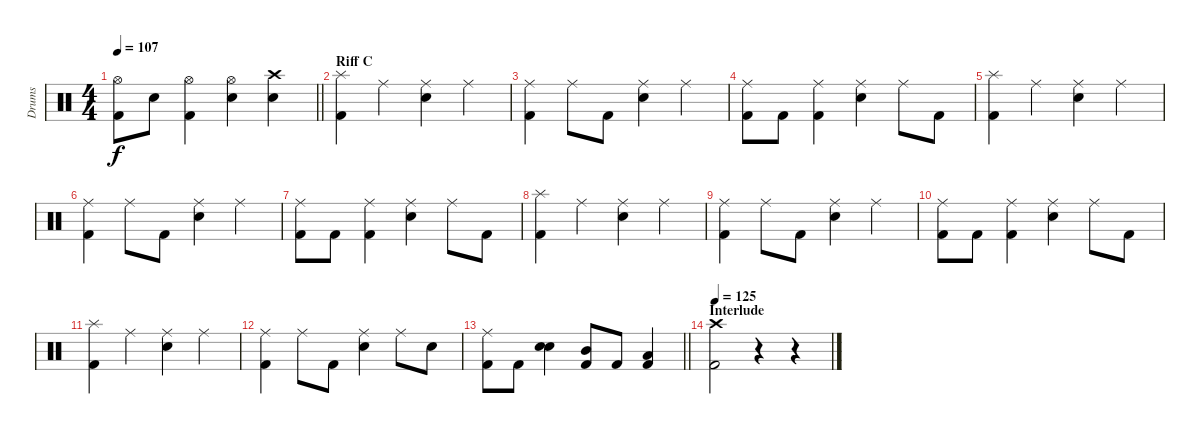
\track ("Drums" "Drums") {instrument percussion}
\staff {score}
\articulation defaults
\ts (4 4)
\tempo 107
\clef neutral
\barLineRight lightlight
\ks c
("Hi-Hat (open)" "Kick (hit) 2").8{dy f} "Electric Snare (hit)".8 ("Hi-Hat (open)" "Kick (hit) 2").4 ("Hi-Hat (open)" "Electric Snare (hit)").4 ("Crash high (hit)" "Electric Snare (hit)").4 |
\section ("" "Riff C")
("Splash (hit)" "Kick (hit) 2").4{volume 14} "Ride (middle)".4 ("Ride (middle)" "Electric Snare (hit)").4 "Ride (middle)".4 |
("Ride (middle)" "Kick (hit) 2").4 "Ride (middle)".8 "Kick (hit) 2".8 ("Ride (middle)" "Electric Snare (hit)").4 "Ride (middle)".4 |
("Ride (middle)" "Kick (hit) 2").8 "Kick (hit) 2".8 ("Ride (middle)" "Kick (hit) 2").4 ("Ride (middle)" "Electric Snare (hit)").4 "Ride (middle)".8 "Kick (hit) 2".8 |
("Splash (hit)" "Kick (hit) 2").4 "Ride (middle)".4 ("Ride (middle)" "Electric Snare (hit)").4 "Ride (middle)".4 |
("Ride (middle)" "Kick (hit) 2").4 "Ride (middle)".8 "Kick (hit) 2".8 ("Ride (middle)" "Electric Snare (hit)").4 "Ride (middle)".4 |
("Ride (middle)" "Kick (hit) 2").8 "Kick (hit) 2".8 ("Ride (middle)" "Kick (hit) 2").4 ("Ride (middle)" "Electric Snare (hit)").4 "Ride (middle)".8 "Kick (hit) 2".8 |
("Splash (hit)" "Kick (hit) 2").4 "Ride (middle)".4 ("Ride (middle)" "Electric Snare (hit)").4 "Ride (middle)".4 |
("Ride (middle)" "Kick (hit) 2").4 "Ride (middle)".8 "Kick (hit) 2".8 ("Ride (middle)" "Electric Snare (hit)").4 "Ride (middle)".4 |
("Ride (middle)" "Kick (hit) 2").8 "Kick (hit) 2".8 ("Ride (middle)" "Kick (hit) 2").4 ("Ride (middle)" "Electric Snare (hit)").4 "Ride (middle)".8 "Kick (hit) 2".8 |
("Splash (hit)" "Kick (hit) 2").4 "Ride (middle)".4 ("Ride (middle)" "Electric Snare (hit)").4 "Ride (middle)".4 |
("Ride (middle)" "Kick (hit) 2").4 "Ride (middle)".8 "Kick (hit) 2".8 ("Ride (middle)" "Electric Snare (hit)").4 "Ride (middle)".8 "Electric Snare (hit)".8 |
\barLineRight lightlight
("Ride (middle)" "Kick (hit) 2").8 "Kick (hit) 2".8 ("Snare (hit) 2" "Electric Snare (hit)").4 ("Mid Tom (hit)" "Kick (hit) 2").8 "Kick (hit) 2".8 ("Low Tom (hit)" "Kick (hit) 2").4 |
\section ("" "Interlude")
\tempo 125
("Crash high (hit)" "Kick (hit) 2").2 r.4 r.4
